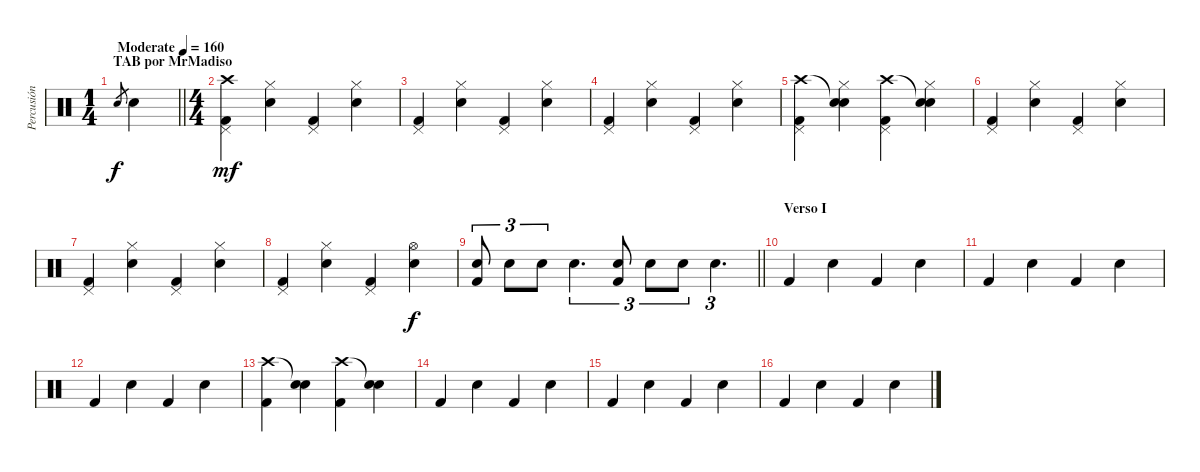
\track ("Percusión" "Percusión") {instrument percussion}
\staff {score}
\articulation defaults
\ts (1 4)
\section ("" "TAB por MrMadiso")
\tempo (160 "Moderate")
\clef neutral
\barLineRight lightlight
\ks c "Electric Snare (hit)".8{gr dy f} "Electric Snare (hit)".4
|
\ts (4 4)
("Crash high (hit)" "Pedal Hi-Hat (hit)" "Kick (hit) 2").4{dy mf} ("Hi-Hat (closed)" "Electric Snare (hit)").4 ("Pedal Hi-Hat (hit)" "Kick (hit) 2").4 ("Hi-Hat (closed)" "Electric Snare (hit)").4 |
("Pedal Hi-Hat (hit)" "Kick (hit) 2").4 ("Hi-Hat (closed)" "Electric Snare (hit)").4 ("Pedal Hi-Hat (hit)" "Kick (hit) 2").4 ("Hi-Hat (closed)" "Electric Snare (hit)").4 |
("Pedal Hi-Hat (hit)" "Kick (hit) 2").4 ("Hi-Hat (closed)" "Electric Snare (hit)").4 ("Pedal Hi-Hat (hit)" "Kick (hit) 2").4 ("Hi-Hat (closed)" "Electric Snare (hit)").4 |
("Crash high (hit)" "Pedal Hi-Hat (hit)" "Kick (hit) 2").4 ("Snare (hit)"{t} "Hi-Hat (closed)" "Electric Snare (hit)").4 ("Crash high (hit)" "Pedal Hi-Hat (hit)" "Kick (hit) 2").4 ("Snare (hit)"{t} "Hi-Hat (closed)" "Electric Snare (hit)").4 |
("Pedal Hi-Hat (hit)" "Kick (hit) 2").4 ("Hi-Hat (closed)" "Electric Snare (hit)").4 ("Pedal Hi-Hat (hit)" "Kick (hit) 2").4 ("Hi-Hat (closed)" "Electric Snare (hit)").4 |
("Pedal Hi-Hat (hit)" "Kick (hit) 2").4 ("Hi-Hat (closed)" "Electric Snare (hit)").4 ("Pedal Hi-Hat (hit)" "Kick (hit) 2").4 ("Hi-Hat (closed)" "Electric Snare (hit)").4 |
("Pedal Hi-Hat (hit)" "Kick (hit) 2").4 ("Hi-Hat (closed)" "Electric Snare (hit)").4 ("Pedal Hi-Hat (hit)" "Kick (hit) 2").4 ("Hi-Hat (open)" "Electric Snare (hit)").4{dy f} |
\barLineRight lightlight
("Electric Snare (hit)" "Kick (hit) 2").8{tu (3 2) beam split} "Electric Snare (hit)".8{tu (3 2)} "Electric Snare (hit)".8{tu (3 2)} "Electric Snare (hit)".4{d tu (3 2)} ("Electric Snare (hit)" "Kick (hit) 2").8{tu (3 2) beam split} "Electric Snare (hit)".8{tu (3 2)} "Electric Snare (hit)".8{tu (3 2)} "Electric Snare (hit)".4{d tu (3 2)} |
\section ("" "Verso I")
"Kick (hit) 2".4 "Electric Snare (hit)".4 "Kick (hit) 2".4 "Electric Snare (hit)".4 |
"Kick (hit) 2".4 "Electric Snare (hit)".4 "Kick (hit) 2".4 "Electric Snare (hit)".4 |
"Kick (hit) 2".4 "Electric Snare (hit)".4 "Kick (hit) 2".4 "Electric Snare (hit)".4 |
("Crash high (hit)" "Kick (hit) 2").4 ("Snare (hit)"{t} "Electric Snare (hit)").4 ("Crash high (hit)" "Kick (hit) 2").4 ("Snare (hit)"{t} "Electric Snare (hit)").4 |
"Kick (hit) 2".4 "Electric Snare (hit)".4 "Kick (hit) 2".4 "Electric Snare (hit)".4 |
"Kick (hit) 2".4 "Electric Snare (hit)".4 "Kick (hit) 2".4 "Electric Snare (hit)".4 |
"Kick (hit) 2".4 "Electric Snare (hit)".4 "Kick (hit) 2".4 "Electric Snare (hit)".4
